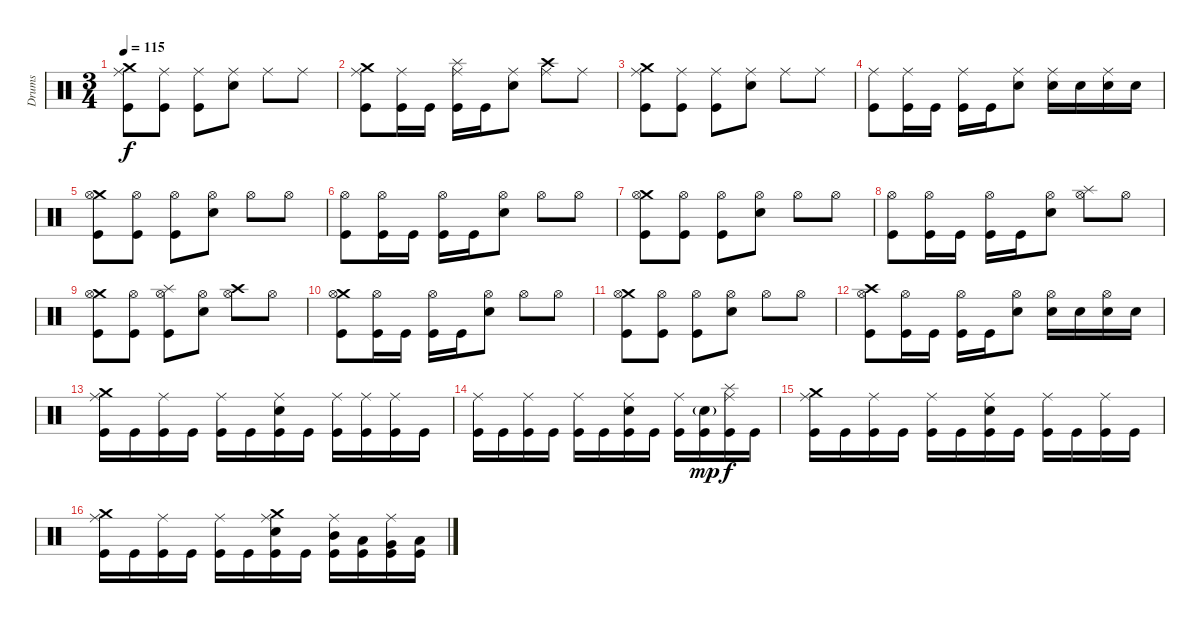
\track ("Drums" "Drums") {instrument percussion}
\staff {score}
\articulation defaults
\ts (3 4)
\tempo 115
\clef neutral
\ks c
("Crash medium (hit)" "Ride (middle)" "Kick (hit)").8{dy f} ("Ride (middle)" "Kick (hit)").8 ("Ride (middle)" "Kick (hit)").8 ("Ride (middle)" "Electric Snare (hit)").8 "Ride (middle)".8 "Ride (middle)".8 |
("Crash medium (hit)" "Ride (middle)" "Kick (hit)").8 ("Ride (middle)" "Kick (hit)").16 "Kick (hit)".16 ("Splash (hit)" "Ride (middle)" "Kick (hit)").16 "Kick (hit)".16 ("Ride (middle)" "Electric Snare (hit)").8 ("Crash high (hit)" "Ride (middle)").8 "Ride (middle)".8 |
("Crash medium (hit)" "Ride (middle)" "Kick (hit)").8 ("Ride (middle)" "Kick (hit)").8 ("Ride (middle)" "Kick (hit)").8 ("Ride (middle)" "Electric Snare (hit)").8 "Ride (middle)".8 "Ride (middle)".8 |
("Ride (middle)" "Kick (hit)").8 ("Ride (middle)" "Kick (hit)").16 "Kick (hit)".16 ("Ride (middle)" "Kick (hit)").16 "Kick (hit)".16 ("Ride (middle)" "Electric Snare (hit)").8 ("Ride (middle)" "Electric Snare (hit)").16 "Electric Snare (hit)".16 ("Ride (middle)" "Electric Snare (hit)").16 "Electric Snare (hit)".16 |
("Crash medium (hit)" "Hi-Hat (open)" "Kick (hit)").8 ("Hi-Hat (open)" "Kick (hit)").8 ("Hi-Hat (open)" "Kick (hit)").8 ("Hi-Hat (open)" "Electric Snare (hit)").8 "Hi-Hat (open)".8 "Hi-Hat (open)".8 |
("Hi-Hat (open)" "Kick (hit)").8 ("Hi-Hat (open)" "Kick (hit)").16 "Kick (hit)".16 ("Hi-Hat (open)" "Kick (hit)").16 "Kick (hit)".16 ("Hi-Hat (open)" "Electric Snare (hit)").8 "Hi-Hat (open)".8 "Hi-Hat (open)".8 |
("Crash medium (hit)" "Hi-Hat (open)" "Kick (hit)").8 ("Hi-Hat (open)" "Kick (hit)").8 ("Hi-Hat (open)" "Kick (hit)").8 ("Hi-Hat (open)" "Electric Snare (hit)").8 "Hi-Hat (open)".8 "Hi-Hat (open)".8 |
("Hi-Hat (open)" "Kick (hit)").8 ("Hi-Hat (open)" "Kick (hit)").16 "Kick (hit)".16 ("Hi-Hat (open)" "Kick (hit)").16 "Kick (hit)".16 ("Hi-Hat (open)" "Electric Snare (hit)").8 ("Splash (hit)" "Hi-Hat (open)").8 "Hi-Hat (open)".8 |
("Crash medium (hit)" "Hi-Hat (open)" "Kick (hit)").8 ("Hi-Hat (open)" "Kick (hit)").8 ("Splash (hit)" "Hi-Hat (open)" "Kick (hit)").8 ("Hi-Hat (open)" "Electric Snare (hit)").8 ("Crash high (hit)" "Hi-Hat (open)").8 "Hi-Hat (open)".8 |
("Crash medium (hit)" "Hi-Hat (open)" "Kick (hit)").8 ("Hi-Hat (open)" "Kick (hit)").16 "Kick (hit)".16 ("Hi-Hat (open)" "Kick (hit)").16 "Kick (hit)".16 ("Hi-Hat (open)" "Electric Snare (hit)").8 "Hi-Hat (open)".8 "Hi-Hat (open)".8 |
("Crash medium (hit)" "Hi-Hat (open)" "Kick (hit)").8 ("Hi-Hat (open)" "Kick (hit)").8 ("Hi-Hat (open)" "Kick (hit)").8 ("Hi-Hat (open)" "Electric Snare (hit)").8 "Hi-Hat (open)".8 "Hi-Hat (open)".8 |
("Crash high (hit)" "Hi-Hat (open)" "Kick (hit)").8 ("Hi-Hat (open)" "Kick (hit)").16 "Kick (hit)".16 ("Hi-Hat (open)" "Kick (hit)").16 "Kick (hit)".16 ("Hi-Hat (open)" "Electric Snare (hit)").8 ("Hi-Hat (open)" "Electric Snare (hit)").16 "Electric Snare (hit)".16 ("Hi-Hat (open)" "Electric Snare (hit)").16 "Electric Snare (hit)".16 |
("Crash medium (hit)" "Ride (middle)" "Kick (hit)").16 "Kick (hit)".16 ("Ride (middle)" "Kick (hit)").16 "Kick (hit)".16 ("Ride (middle)" "Kick (hit)").16 "Kick (hit)".16 ("Ride (middle)" "Electric Snare (hit)" "Kick (hit)").16 "Kick (hit)".16 ("Ride (middle)" "Kick (hit)").16 ("Ride (middle)" "Kick (hit)").16 ("Ride (middle)" "Kick (hit)").16 "Kick (hit)".16 |
("Ride (middle)" "Kick (hit)").16 "Kick (hit)".16 ("Ride (middle)" "Kick (hit)").16 "Kick (hit)".16 ("Ride (middle)" "Kick (hit)").16 "Kick (hit)".16 ("Ride (middle)" "Electric Snare (hit)" "Kick (hit)").16 "Kick (hit)".16 ("Ride (middle)" "Kick (hit)").16 ("Electric Snare (hit)"{g} "Kick (hit)").16{dy mp} ("Splash (hit)" "Ride (middle)" "Kick (hit)").16{dy f} "Kick (hit)".16 |
("Crash medium (hit)" "Ride (middle)" "Kick (hit)").16 "Kick (hit)".16 ("Ride (middle)" "Kick (hit)").16 "Kick (hit)".16 ("Ride (middle)" "Kick (hit)").16 "Kick (hit)".16 ("Ride (middle)" "Electric Snare (hit)" "Kick (hit)").16 "Kick (hit)".16 ("Ride (middle)" "Kick (hit)").16 "Kick (hit)".16 ("Ride (middle)" "Kick (hit)").16 "Kick (hit)".16 |
("Crash medium (hit)" "Ride (middle)" "Kick (hit)").16 "Kick (hit)".16 ("Ride (middle)" "Kick (hit)").16 "Kick (hit)".16 ("Ride (middle)" "Kick (hit)").16 "Kick (hit)".16 ("Crash medium (hit)" "Ride (middle)" "Electric Snare (hit)" "Kick (hit)").16 "Kick (hit)".16 ("Mid Tom (hit)" "Ride (middle)" "Kick (hit)").16 ("Low Tom (hit)" "Kick (hit)").16 ("Very Low Tom (hit)" "Ride (middle)" "Kick (hit)").16 ("Low Floor Tom (hit)" "Kick (hit)").16
